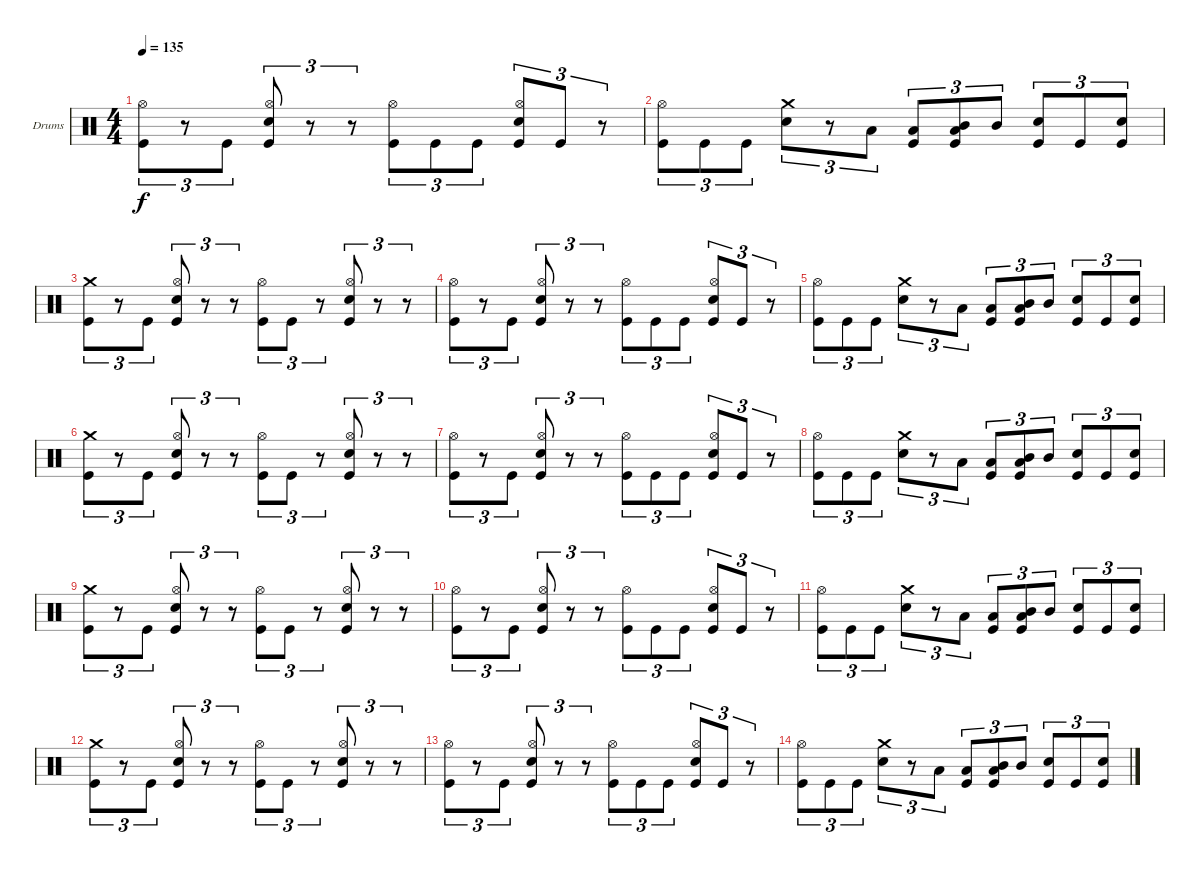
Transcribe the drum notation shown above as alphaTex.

\defaultSystemsLayout 4
\bracketExtendMode groupsimilarinstruments
\firstSystemTrackNameOrientation horizontal
\otherSystemsTrackNameOrientation horizontal
\track ("Drumkit" "Drums") {instrument percussion}
\staff {score}
\articulation defaults
\ts (4 4)
\tempo 135
\clef neutral
\ks c
("Kick (hit)" "Hi-Hat (open)").8{tu (3 2) dy f} r.8{tu (3 2)} "Kick (hit)".8{tu (3 2)} ("Kick (hit)" "Snare (hit) 2" "Hi-Hat (open)").8{tu (3 2)} r.8{tu (3 2)} r.8{tu (3 2)} ("Kick (hit)" "Hi-Hat (open)").8{tu (3 2)} "Kick (hit)".8{tu (3 2)} "Kick (hit)".8{tu (3 2)} ("Kick (hit)" "Snare (hit) 2" "Hi-Hat (open)").8{tu (3 2)} "Kick (hit)".8{tu (3 2)} r.8{tu (3 2)} |
("Kick (hit)" "Hi-Hat (open)").8{tu (3 2)} "Kick (hit)".8{tu (3 2)} "Kick (hit)".8{tu (3 2)} ("Snare (hit) 2" "Crash medium (hit)").8{tu (3 2)} r.8{tu (3 2)} "Low Tom (hit)".8{tu (3 2)} ("Kick (hit)" "Low Tom (hit)").8{tu (3 2)} ("Kick (hit)" "Low Tom (hit)" "Mid Tom (hit)").8{tu (3 2)} "Mid Tom (hit)".8{tu (3 2)} ("Kick (hit)" "Snare (hit) 2").8{tu (3 2)} "Kick (hit)".8{tu (3 2)} ("Kick (hit)" "Snare (hit) 2").8{tu (3 2)} |
("Kick (hit)" "Crash medium (hit)").8{tu (3 2)} r.8{tu (3 2)} "Kick (hit)".8{tu (3 2)} ("Kick (hit)" "Snare (hit) 2" "Hi-Hat (open)").8{tu (3 2)} r.8{tu (3 2)} r.8{tu (3 2)} ("Kick (hit)" "Hi-Hat (open)").8{tu (3 2)} "Kick (hit)".8{tu (3 2)} r.8{tu (3 2)} ("Kick (hit)" "Snare (hit) 2" "Hi-Hat (open)").8{tu (3 2)} r.8{tu (3 2)} r.8{tu (3 2)} |
("Kick (hit)" "Hi-Hat (open)").8{tu (3 2)} r.8{tu (3 2)} "Kick (hit)".8{tu (3 2)} ("Kick (hit)" "Snare (hit) 2" "Hi-Hat (open)").8{tu (3 2)} r.8{tu (3 2)} r.8{tu (3 2)} ("Kick (hit)" "Hi-Hat (open)").8{tu (3 2)} "Kick (hit)".8{tu (3 2)} "Kick (hit)".8{tu (3 2)} ("Kick (hit)" "Snare (hit) 2" "Hi-Hat (open)").8{tu (3 2)} "Kick (hit)".8{tu (3 2)} r.8{tu (3 2)} |
("Kick (hit)" "Hi-Hat (open)").8{tu (3 2)} "Kick (hit)".8{tu (3 2)} "Kick (hit)".8{tu (3 2)} ("Snare (hit) 2" "Crash medium (hit)").8{tu (3 2)} r.8{tu (3 2)} "Low Tom (hit)".8{tu (3 2)} ("Kick (hit)" "Low Tom (hit)").8{tu (3 2)} ("Kick (hit)" "Low Tom (hit)" "Mid Tom (hit)").8{tu (3 2)} "Mid Tom (hit)".8{tu (3 2)} ("Kick (hit)" "Snare (hit) 2").8{tu (3 2)} "Kick (hit)".8{tu (3 2)} ("Kick (hit)" "Snare (hit) 2").8{tu (3 2)} |
("Kick (hit)" "Crash medium (hit)").8{tu (3 2)} r.8{tu (3 2)} "Kick (hit)".8{tu (3 2)} ("Kick (hit)" "Snare (hit) 2" "Hi-Hat (open)").8{tu (3 2)} r.8{tu (3 2)} r.8{tu (3 2)} ("Kick (hit)" "Hi-Hat (open)").8{tu (3 2)} "Kick (hit)".8{tu (3 2)} r.8{tu (3 2)} ("Kick (hit)" "Snare (hit) 2" "Hi-Hat (open)").8{tu (3 2)} r.8{tu (3 2)} r.8{tu (3 2)} |
("Kick (hit)" "Hi-Hat (open)").8{tu (3 2)} r.8{tu (3 2)} "Kick (hit)".8{tu (3 2)} ("Kick (hit)" "Snare (hit) 2" "Hi-Hat (open)").8{tu (3 2)} r.8{tu (3 2)} r.8{tu (3 2)} ("Kick (hit)" "Hi-Hat (open)").8{tu (3 2)} "Kick (hit)".8{tu (3 2)} "Kick (hit)".8{tu (3 2)} ("Kick (hit)" "Snare (hit) 2" "Hi-Hat (open)").8{tu (3 2)} "Kick (hit)".8{tu (3 2)} r.8{tu (3 2)} |
("Kick (hit)" "Hi-Hat (open)").8{tu (3 2)} "Kick (hit)".8{tu (3 2)} "Kick (hit)".8{tu (3 2)} ("Snare (hit) 2" "Crash medium (hit)").8{tu (3 2)} r.8{tu (3 2)} "Low Tom (hit)".8{tu (3 2)} ("Kick (hit)" "Low Tom (hit)").8{tu (3 2)} ("Kick (hit)" "Low Tom (hit)" "Mid Tom (hit)").8{tu (3 2)} "Mid Tom (hit)".8{tu (3 2)} ("Kick (hit)" "Snare (hit) 2").8{tu (3 2)} "Kick (hit)".8{tu (3 2)} ("Kick (hit)" "Snare (hit) 2").8{tu (3 2)} |
("Kick (hit)" "Crash medium (hit)").8{tu (3 2)} r.8{tu (3 2)} "Kick (hit)".8{tu (3 2)} ("Kick (hit)" "Snare (hit) 2" "Hi-Hat (open)").8{tu (3 2)} r.8{tu (3 2)} r.8{tu (3 2)} ("Kick (hit)" "Hi-Hat (open)").8{tu (3 2)} "Kick (hit)".8{tu (3 2)} r.8{tu (3 2)} ("Kick (hit)" "Snare (hit) 2" "Hi-Hat (open)").8{tu (3 2)} r.8{tu (3 2)} r.8{tu (3 2)} |
("Kick (hit)" "Hi-Hat (open)").8{tu (3 2)} r.8{tu (3 2)} "Kick (hit)".8{tu (3 2)} ("Kick (hit)" "Snare (hit) 2" "Hi-Hat (open)").8{tu (3 2)} r.8{tu (3 2)} r.8{tu (3 2)} ("Kick (hit)" "Hi-Hat (open)").8{tu (3 2)} "Kick (hit)".8{tu (3 2)} "Kick (hit)".8{tu (3 2)} ("Kick (hit)" "Snare (hit) 2" "Hi-Hat (open)").8{tu (3 2)} "Kick (hit)".8{tu (3 2)} r.8{tu (3 2)} |
("Kick (hit)" "Hi-Hat (open)").8{tu (3 2)} "Kick (hit)".8{tu (3 2)} "Kick (hit)".8{tu (3 2)} ("Snare (hit) 2" "Crash medium (hit)").8{tu (3 2)} r.8{tu (3 2)} "Low Tom (hit)".8{tu (3 2)} ("Kick (hit)" "Low Tom (hit)").8{tu (3 2)} ("Kick (hit)" "Low Tom (hit)" "Mid Tom (hit)").8{tu (3 2)} "Mid Tom (hit)".8{tu (3 2)} ("Kick (hit)" "Snare (hit) 2").8{tu (3 2)} "Kick (hit)".8{tu (3 2)} ("Kick (hit)" "Snare (hit) 2").8{tu (3 2)} |
("Kick (hit)" "Crash medium (hit)").8{tu (3 2)} r.8{tu (3 2)} "Kick (hit)".8{tu (3 2)} ("Kick (hit)" "Snare (hit) 2" "Hi-Hat (open)").8{tu (3 2)} r.8{tu (3 2)} r.8{tu (3 2)} ("Kick (hit)" "Hi-Hat (open)").8{tu (3 2)} "Kick (hit)".8{tu (3 2)} r.8{tu (3 2)} ("Kick (hit)" "Snare (hit) 2" "Hi-Hat (open)").8{tu (3 2)} r.8{tu (3 2)} r.8{tu (3 2)} |
("Kick (hit)" "Hi-Hat (open)").8{tu (3 2)} r.8{tu (3 2)} "Kick (hit)".8{tu (3 2)} ("Kick (hit)" "Snare (hit) 2" "Hi-Hat (open)").8{tu (3 2)} r.8{tu (3 2)} r.8{tu (3 2)} ("Kick (hit)" "Hi-Hat (open)").8{tu (3 2)} "Kick (hit)".8{tu (3 2)} "Kick (hit)".8{tu (3 2)} ("Kick (hit)" "Snare (hit) 2" "Hi-Hat (open)").8{tu (3 2)} "Kick (hit)".8{tu (3 2)} r.8{tu (3 2)} |
("Kick (hit)" "Hi-Hat (open)").8{tu (3 2)} "Kick (hit)".8{tu (3 2)} "Kick (hit)".8{tu (3 2)} ("Snare (hit) 2" "Crash medium (hit)").8{tu (3 2)} r.8{tu (3 2)} "Low Tom (hit)".8{tu (3 2)} ("Kick (hit)" "Low Tom (hit)").8{tu (3 2)} ("Kick (hit)" "Low Tom (hit)" "Mid Tom (hit)").8{tu (3 2)} "Mid Tom (hit)".8{tu (3 2)} ("Kick (hit)" "Snare (hit) 2").8{tu (3 2)} "Kick (hit)".8{tu (3 2)} ("Kick (hit)" "Snare (hit) 2").8{tu (3 2)}
